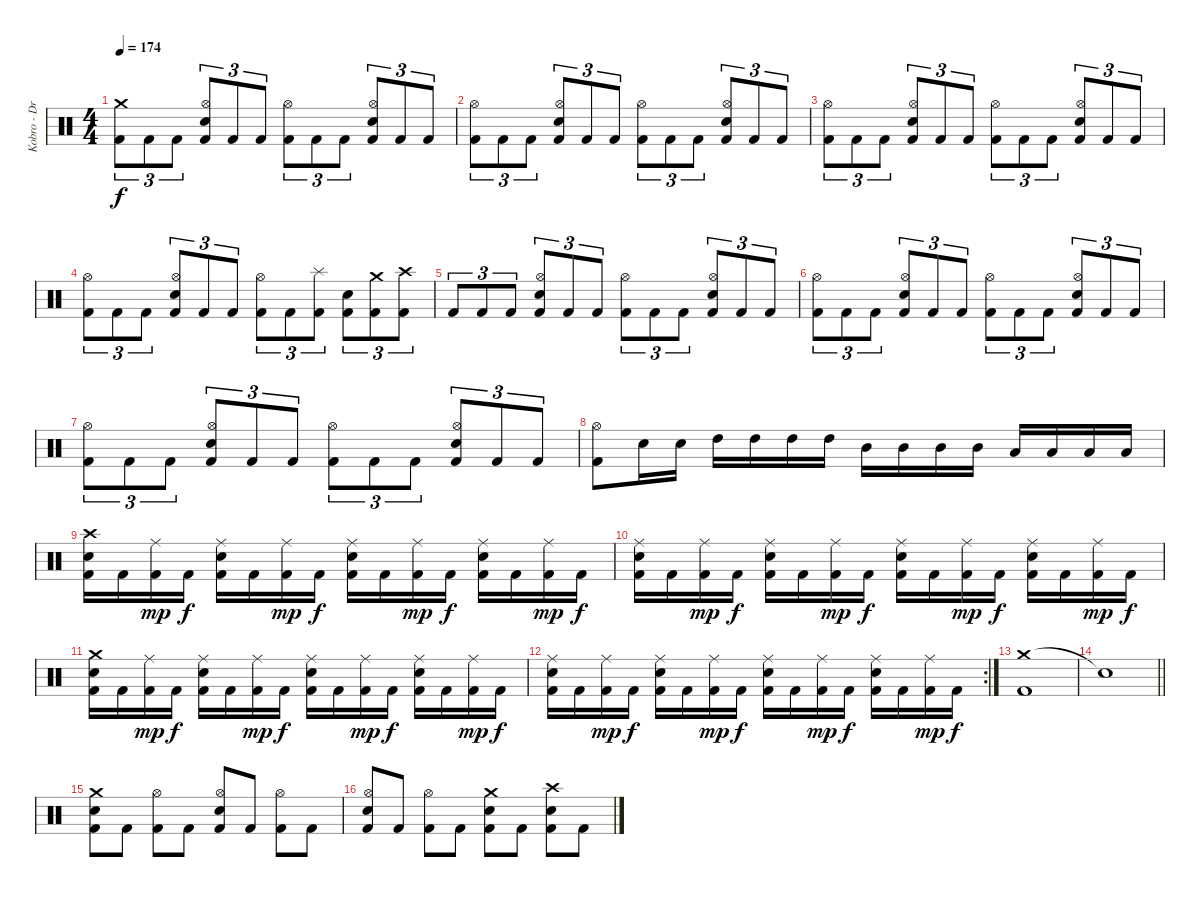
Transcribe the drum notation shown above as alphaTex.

\track ("Kobro - Drums + Percussion" "Kobro - Dr") {instrument percussion}
\staff {score}
\articulation defaults
\ts (4 4)
\tempo 174
\clef neutral
\ks c
("Crash medium (hit)" "Kick (hit) 2").8{tu (3 2) dy f} "Kick (hit) 2".8{tu (3 2)} "Kick (hit) 2".8{tu (3 2)} ("Hi-Hat (open)" "Electric Snare (hit)" "Kick (hit) 2").8{tu (3 2)} "Kick (hit) 2".8{tu (3 2)} "Kick (hit) 2".8{tu (3 2)} ("Hi-Hat (open)" "Kick (hit) 2").8{tu (3 2)} "Kick (hit) 2".8{tu (3 2)} "Kick (hit) 2".8{tu (3 2)} ("Hi-Hat (open)" "Electric Snare (hit)" "Kick (hit) 2").8{tu (3 2)} "Kick (hit) 2".8{tu (3 2)} "Kick (hit) 2".8{tu (3 2)} |
("Hi-Hat (open)" "Kick (hit) 2").8{tu (3 2)} "Kick (hit) 2".8{tu (3 2)} "Kick (hit) 2".8{tu (3 2)} ("Hi-Hat (open)" "Electric Snare (hit)" "Kick (hit) 2").8{tu (3 2)} "Kick (hit) 2".8{tu (3 2)} "Kick (hit) 2".8{tu (3 2)} ("Hi-Hat (open)" "Kick (hit) 2").8{tu (3 2)} "Kick (hit) 2".8{tu (3 2)} "Kick (hit) 2".8{tu (3 2)} ("Hi-Hat (open)" "Electric Snare (hit)" "Kick (hit) 2").8{tu (3 2)} "Kick (hit) 2".8{tu (3 2)} "Kick (hit) 2".8{tu (3 2)} |
("Hi-Hat (open)" "Kick (hit) 2").8{tu (3 2)} "Kick (hit) 2".8{tu (3 2)} "Kick (hit) 2".8{tu (3 2)} ("Hi-Hat (open)" "Electric Snare (hit)" "Kick (hit) 2").8{tu (3 2)} "Kick (hit) 2".8{tu (3 2)} "Kick (hit) 2".8{tu (3 2)} ("Hi-Hat (open)" "Kick (hit) 2").8{tu (3 2)} "Kick (hit) 2".8{tu (3 2)} "Kick (hit) 2".8{tu (3 2)} ("Hi-Hat (open)" "Electric Snare (hit)" "Kick (hit) 2").8{tu (3 2)} "Kick (hit) 2".8{tu (3 2)} "Kick (hit) 2".8{tu (3 2)} |
("Hi-Hat (open)" "Kick (hit) 2").8{tu (3 2)} "Kick (hit) 2".8{tu (3 2)} "Kick (hit) 2".8{tu (3 2)} ("Hi-Hat (open)" "Electric Snare (hit)" "Kick (hit) 2").8{tu (3 2)} "Kick (hit) 2".8{tu (3 2)} "Kick (hit) 2".8{tu (3 2)} ("Hi-Hat (open)" "Kick (hit) 2").8{tu (3 2)} "Kick (hit) 2".8{tu (3 2)} ("Splash (hit)" "Kick (hit) 2").8{tu (3 2)} ("Electric Snare (hit)" "Kick (hit) 2").8{tu (3 2)} ("Crash medium (hit)" "Kick (hit) 2").8{tu (3 2)} ("Crash high (hit)" "Kick (hit) 2").8{tu (3 2)} |
"Kick (hit) 2".8{tu (3 2)} "Kick (hit) 2".8{tu (3 2)} "Kick (hit) 2".8{tu (3 2)} ("Hi-Hat (open)" "Electric Snare (hit)" "Kick (hit) 2").8{tu (3 2)} "Kick (hit) 2".8{tu (3 2)} "Kick (hit) 2".8{tu (3 2)} ("Hi-Hat (open)" "Kick (hit) 2").8{tu (3 2)} "Kick (hit) 2".8{tu (3 2)} "Kick (hit) 2".8{tu (3 2)} ("Hi-Hat (open)" "Electric Snare (hit)" "Kick (hit) 2").8{tu (3 2)} "Kick (hit) 2".8{tu (3 2)} "Kick (hit) 2".8{tu (3 2)} |
("Hi-Hat (open)" "Kick (hit) 2").8{tu (3 2)} "Kick (hit) 2".8{tu (3 2)} "Kick (hit) 2".8{tu (3 2)} ("Hi-Hat (open)" "Electric Snare (hit)" "Kick (hit) 2").8{tu (3 2)} "Kick (hit) 2".8{tu (3 2)} "Kick (hit) 2".8{tu (3 2)} ("Hi-Hat (open)" "Kick (hit) 2").8{tu (3 2)} "Kick (hit) 2".8{tu (3 2)} "Kick (hit) 2".8{tu (3 2)} ("Hi-Hat (open)" "Electric Snare (hit)" "Kick (hit) 2").8{tu (3 2)} "Kick (hit) 2".8{tu (3 2)} "Kick (hit) 2".8{tu (3 2)} |
("Hi-Hat (open)" "Kick (hit) 2").8{tu (3 2)} "Kick (hit) 2".8{tu (3 2)} "Kick (hit) 2".8{tu (3 2)} ("Hi-Hat (open)" "Electric Snare (hit)" "Kick (hit) 2").8{tu (3 2)} "Kick (hit) 2".8{tu (3 2)} "Kick (hit) 2".8{tu (3 2)} ("Hi-Hat (open)" "Kick (hit) 2").8{tu (3 2)} "Kick (hit) 2".8{tu (3 2)} "Kick (hit) 2".8{tu (3 2)} ("Hi-Hat (open)" "Electric Snare (hit)" "Kick (hit) 2").8{tu (3 2)} "Kick (hit) 2".8{tu (3 2)} "Kick (hit) 2".8{tu (3 2)} |
("Hi-Hat (open)" "Kick (hit) 2").8 "Electric Snare (hit)".16 "Electric Snare (hit)".16 "High Tom (hit)".16 "High Tom (hit)".16 "High Tom (hit)".16 "High Tom (hit)".16 "Mid Tom (hit)".16 "Mid Tom (hit)".16 "Mid Tom (hit)".16 "Mid Tom (hit)".16 "Low Tom (hit)".16 "Low Tom (hit)".16 "Low Tom (hit)".16 "Low Tom (hit)".16 |
("Crash high (hit)" "Electric Snare (hit)" "Kick (hit) 2").16 "Kick (hit) 2".16 ("Ride (middle)" "Kick (hit) 2").16{dy mp} "Kick (hit) 2".16{dy f} ("Ride (middle)" "Electric Snare (hit)" "Kick (hit) 2").16 "Kick (hit) 2".16 ("Ride (middle)" "Kick (hit) 2").16{dy mp} "Kick (hit) 2".16{dy f} ("Ride (middle)" "Electric Snare (hit)" "Kick (hit) 2").16 "Kick (hit) 2".16 ("Ride (middle)" "Kick (hit) 2").16{dy mp} "Kick (hit) 2".16{dy f} ("Ride (middle)" "Electric Snare (hit)" "Kick (hit) 2").16 "Kick (hit) 2".16 ("Ride (middle)" "Kick (hit) 2").16{dy mp} "Kick (hit) 2".16{dy f} |
("Ride (middle)" "Electric Snare (hit)" "Kick (hit) 2").16 "Kick (hit) 2".16 ("Ride (middle)" "Kick (hit) 2").16{dy mp} "Kick (hit) 2".16{dy f} ("Ride (middle)" "Electric Snare (hit)" "Kick (hit) 2").16 "Kick (hit) 2".16 ("Ride (middle)" "Kick (hit) 2").16{dy mp} "Kick (hit) 2".16{dy f} ("Ride (middle)" "Electric Snare (hit)" "Kick (hit) 2").16 "Kick (hit) 2".16 ("Ride (middle)" "Kick (hit) 2").16{dy mp} "Kick (hit) 2".16{dy f} ("Ride (middle)" "Electric Snare (hit)" "Kick (hit) 2").16 "Kick (hit) 2".16 ("Ride (middle)" "Kick (hit) 2").16{dy mp} "Kick (hit) 2".16{dy f} |
("Crash medium (hit)" "Electric Snare (hit)" "Kick (hit) 2").16 "Kick (hit) 2".16 ("Ride (middle)" "Kick (hit) 2").16{dy mp} "Kick (hit) 2".16{dy f} ("Ride (middle)" "Electric Snare (hit)" "Kick (hit) 2").16 "Kick (hit) 2".16 ("Ride (middle)" "Kick (hit) 2").16{dy mp} "Kick (hit) 2".16{dy f} ("Ride (middle)" "Electric Snare (hit)" "Kick (hit) 2").16 "Kick (hit) 2".16 ("Ride (middle)" "Kick (hit) 2").16{dy mp} "Kick (hit) 2".16{dy f} ("Ride (middle)" "Electric Snare (hit)" "Kick (hit) 2").16 "Kick (hit) 2".16 ("Ride (middle)" "Kick (hit) 2").16{dy mp} "Kick (hit) 2".16{dy f} |
\rc 2
("Ride (middle)" "Electric Snare (hit)" "Kick (hit) 2").16 "Kick (hit) 2".16 ("Ride (middle)" "Kick (hit) 2").16{dy mp} "Kick (hit) 2".16{dy f} ("Ride (middle)" "Electric Snare (hit)" "Kick (hit) 2").16 "Kick (hit) 2".16 ("Ride (middle)" "Kick (hit) 2").16{dy mp} "Kick (hit) 2".16{dy f} ("Ride (middle)" "Electric Snare (hit)" "Kick (hit) 2").16 "Kick (hit) 2".16 ("Ride (middle)" "Kick (hit) 2").16{dy mp} "Kick (hit) 2".16{dy f} ("Ride (middle)" "Electric Snare (hit)" "Kick (hit) 2").16 "Kick (hit) 2".16 ("Ride (middle)" "Kick (hit) 2").16{dy mp} "Kick (hit) 2".16{dy f} |
("Crash medium (hit)" "Kick (hit) 2").1 |
\barLineRight lightlight "Snare (hit)"{t}.1
|
("Crash medium (hit)" "Electric Snare (hit)" "Kick (hit) 2").8 "Kick (hit) 2".8 ("Hi-Hat (open)" "Kick (hit) 2").8 "Kick (hit) 2".8 ("Hi-Hat (open)" "Electric Snare (hit)" "Kick (hit) 2").8 "Kick (hit) 2".8 ("Hi-Hat (open)" "Kick (hit) 2").8 "Kick (hit) 2".8 |
("Hi-Hat (open)" "Electric Snare (hit)" "Kick (hit) 2").8 "Kick (hit) 2".8 ("Hi-Hat (open)" "Kick (hit) 2").8 "Kick (hit) 2".8 ("Crash medium (hit)" "Electric Snare (hit)" "Kick (hit) 2").8 "Kick (hit) 2".8 ("Crash high (hit)" "Electric Snare (hit)" "Kick (hit) 2").8 "Kick (hit) 2".8
